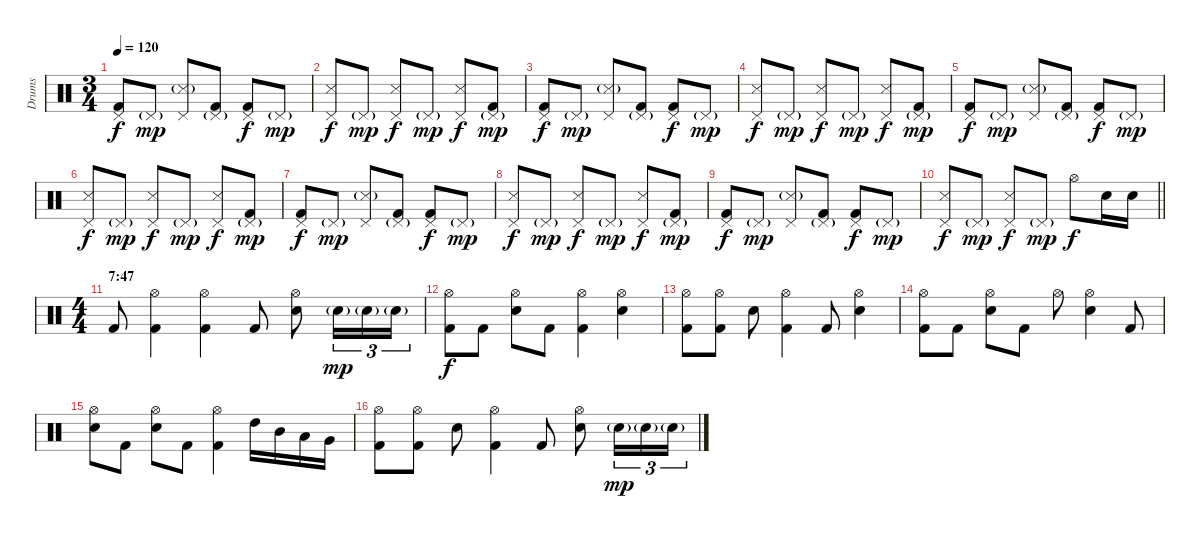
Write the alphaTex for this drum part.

\track ("Drums" "Drums") {instrument percussion}
\staff {score}
\articulation defaults
\ts (3 4)
\tempo 120
\clef neutral
\ks c
("Pedal Hi-Hat (hit)" "Kick (hit) 2").8{dy f} "Pedal Hi-Hat (hit)"{g}.8{dy mp} ("Pedal Hi-Hat (hit)" "Snare (side stick) 3"{g}).8 ("Pedal Hi-Hat (hit)"{g} "Kick (hit) 2").8 ("Pedal Hi-Hat (hit)" "Kick (hit) 2").8{dy f} "Pedal Hi-Hat (hit)"{g}.8{dy mp} |
("Pedal Hi-Hat (hit)" "Snare (side stick) 3").8{dy f} "Pedal Hi-Hat (hit)"{g}.8{dy mp} ("Pedal Hi-Hat (hit)" "Snare (side stick) 3").8{dy f} "Pedal Hi-Hat (hit)"{g}.8{dy mp} ("Pedal Hi-Hat (hit)" "Snare (side stick) 3").8{dy f} ("Pedal Hi-Hat (hit)"{g} "Kick (hit) 2").8{dy mp} |
("Pedal Hi-Hat (hit)" "Kick (hit) 2").8{dy f} "Pedal Hi-Hat (hit)"{g}.8{dy mp} ("Pedal Hi-Hat (hit)" "Snare (side stick) 3"{g}).8 ("Pedal Hi-Hat (hit)"{g} "Kick (hit) 2").8 ("Pedal Hi-Hat (hit)" "Kick (hit) 2").8{dy f} "Pedal Hi-Hat (hit)"{g}.8{dy mp} |
("Pedal Hi-Hat (hit)" "Snare (side stick) 3").8{dy f} "Pedal Hi-Hat (hit)"{g}.8{dy mp} ("Pedal Hi-Hat (hit)" "Snare (side stick) 3").8{dy f} "Pedal Hi-Hat (hit)"{g}.8{dy mp} ("Pedal Hi-Hat (hit)" "Snare (side stick) 3").8{dy f} ("Pedal Hi-Hat (hit)"{g} "Kick (hit) 2").8{dy mp} |
("Pedal Hi-Hat (hit)" "Kick (hit) 2").8{dy f} "Pedal Hi-Hat (hit)"{g}.8{dy mp} ("Pedal Hi-Hat (hit)" "Snare (side stick) 3"{g}).8 ("Pedal Hi-Hat (hit)"{g} "Kick (hit) 2").8 ("Pedal Hi-Hat (hit)" "Kick (hit) 2").8{dy f} "Pedal Hi-Hat (hit)"{g}.8{dy mp} |
("Pedal Hi-Hat (hit)" "Snare (side stick) 3").8{dy f} "Pedal Hi-Hat (hit)"{g}.8{dy mp} ("Pedal Hi-Hat (hit)" "Snare (side stick) 3").8{dy f} "Pedal Hi-Hat (hit)"{g}.8{dy mp} ("Pedal Hi-Hat (hit)" "Snare (side stick) 3").8{dy f} ("Pedal Hi-Hat (hit)"{g} "Kick (hit) 2").8{dy mp} |
("Pedal Hi-Hat (hit)" "Kick (hit) 2").8{dy f} "Pedal Hi-Hat (hit)"{g}.8{dy mp} ("Pedal Hi-Hat (hit)" "Snare (side stick) 3"{g}).8 ("Pedal Hi-Hat (hit)"{g} "Kick (hit) 2").8 ("Pedal Hi-Hat (hit)" "Kick (hit) 2").8{dy f} "Pedal Hi-Hat (hit)"{g}.8{dy mp} |
("Pedal Hi-Hat (hit)" "Snare (side stick) 3").8{dy f} "Pedal Hi-Hat (hit)"{g}.8{dy mp} ("Pedal Hi-Hat (hit)" "Snare (side stick) 3").8{dy f} "Pedal Hi-Hat (hit)"{g}.8{dy mp} ("Pedal Hi-Hat (hit)" "Snare (side stick) 3").8{dy f} ("Pedal Hi-Hat (hit)"{g} "Kick (hit) 2").8{dy mp} |
("Pedal Hi-Hat (hit)" "Kick (hit) 2").8{dy f} "Pedal Hi-Hat (hit)"{g}.8{dy mp} ("Pedal Hi-Hat (hit)" "Snare (side stick) 3"{g}).8 ("Pedal Hi-Hat (hit)"{g} "Kick (hit) 2").8 ("Pedal Hi-Hat (hit)" "Kick (hit) 2").8{dy f} "Pedal Hi-Hat (hit)"{g}.8{dy mp} |
\barLineRight lightlight
("Pedal Hi-Hat (hit)" "Snare (side stick) 3").8{dy f} "Pedal Hi-Hat (hit)"{g}.8{dy mp} ("Pedal Hi-Hat (hit)" "Snare (side stick) 3").8{dy f} "Pedal Hi-Hat (hit)"{g}.8{dy mp} "Hi-Hat (open)".8{dy f} "Snare (hit) 2".16 "Snare (hit) 2".16 |
\ts (4 4)
\section ("" "7:47")
"Kick (hit) 2".8 ("Hi-Hat (open)" "Kick (hit) 2").4 ("Hi-Hat (open)" "Kick (hit) 2").4 "Kick (hit) 2".8 ("Hi-Hat (open)" "Snare (hit) 2").8 "Snare (hit) 2"{g}.16{tu (3 2) dy mp} "Snare (hit) 2"{g}.16{tu (3 2)} "Snare (hit) 2"{g}.16{tu (3 2)} |
("Hi-Hat (open)" "Kick (hit) 2").8{dy f} "Kick (hit) 2".8 ("Hi-Hat (open)" "Snare (hit) 2").8 "Kick (hit) 2".8 ("Hi-Hat (open)" "Kick (hit) 2").4 ("Hi-Hat (open)" "Snare (hit) 2").4 |
("Hi-Hat (open)" "Kick (hit) 2").8 ("Hi-Hat (open)" "Kick (hit) 2").8 "Snare (hit) 2".8 ("Hi-Hat (open)" "Kick (hit) 2").4 "Kick (hit) 2".8 ("Hi-Hat (open)" "Snare (hit) 2").4 |
("Hi-Hat (open)" "Kick (hit) 2").8 "Kick (hit) 2".8 ("Hi-Hat (open)" "Snare (hit) 2").8 "Kick (hit) 2".8 "Hi-Hat (open)".8 ("Hi-Hat (open)" "Snare (hit) 2").4 "Kick (hit) 2".8 |
("Hi-Hat (open)" "Snare (hit) 2").8 "Kick (hit) 2".8 ("Hi-Hat (open)" "Snare (hit) 2").8 "Kick (hit) 2".8 ("Hi-Hat (open)" "Kick (hit) 2").4 "High Tom (hit)".16 "Mid Tom (hit)".16 "Low Tom (hit)".16 "Very Low Tom (hit)".16 |
("Hi-Hat (open)" "Kick (hit) 2").8 ("Hi-Hat (open)" "Kick (hit) 2").8 "Snare (hit) 2".8 ("Hi-Hat (open)" "Kick (hit) 2").4 "Kick (hit) 2".8 ("Hi-Hat (open)" "Snare (hit) 2").8 "Snare (hit) 2"{g}.16{tu (3 2) dy mp} "Snare (hit) 2"{g}.16{tu (3 2)} "Snare (hit) 2"{g}.16{tu (3 2)}
